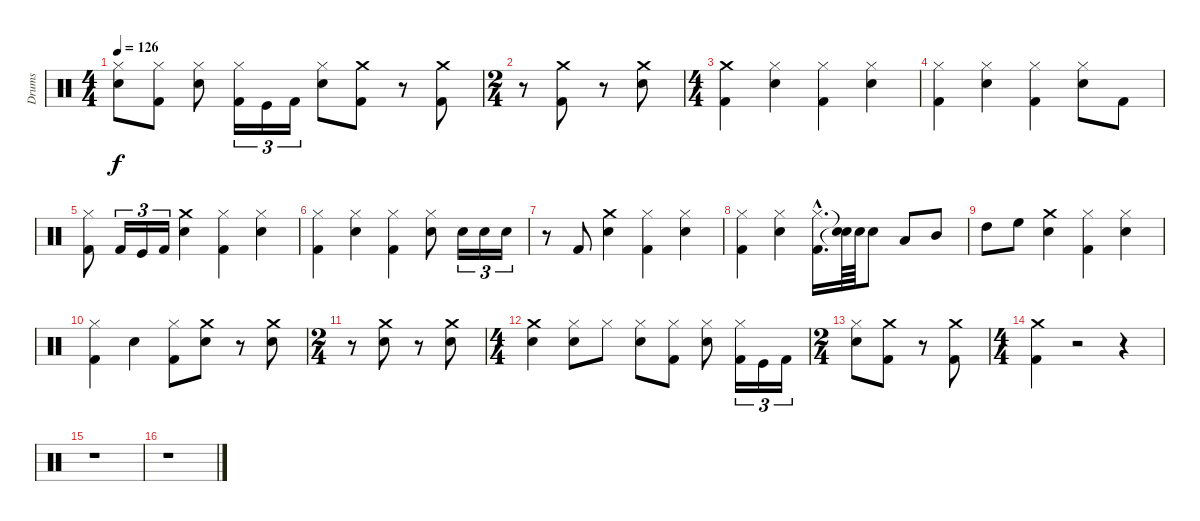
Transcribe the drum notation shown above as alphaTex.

\track ("Drums" "Drums") {instrument percussion}
\staff {score}
\articulation defaults
\ts (4 4)
\tempo 126
\clef neutral
\ks c
("Hi-Hat (closed)" "Snare (hit) 2").8{dy f} ("Kick (hit) 2" "Hi-Hat (closed)").8 ("Snare (hit) 2" "Hi-Hat (closed)").8 ("Hi-Hat (closed)" "Kick (hit) 2").16{tu (3 2)} "Kick (hit)".16{tu (3 2)} "Kick (hit) 2".16{tu (3 2)} ("Snare (hit) 2" "Hi-Hat (closed)").8 ("Crash medium (hit)" "Kick (hit) 2").8 r.8 ("Crash medium (hit)" "Kick (hit) 2").8 |
\ts (2 4)
r.8 ("Crash medium (hit)" "Kick (hit) 2").8 r.8 ("Snare (hit) 2" "Crash medium (hit)").8 |
\ts (4 4)
("Kick (hit) 2" "Crash medium (hit)").4 ("Hi-Hat (closed)" "Snare (hit) 2").4 ("Hi-Hat (closed)" "Kick (hit) 2").4 ("Snare (hit) 2" "Hi-Hat (closed)").4 |
("Hi-Hat (closed)" "Kick (hit) 2").4 ("Snare (hit) 2" "Hi-Hat (closed)").4 ("Hi-Hat (closed)" "Kick (hit) 2").4 ("Snare (hit) 2" "Hi-Hat (closed)").8 "Kick (hit) 2".8 |
("Hi-Hat (closed)" "Kick (hit) 2").8 "Kick (hit) 2".16{tu (3 2)} "Kick (hit)".16{tu (3 2)} "Kick (hit) 2".16{tu (3 2)} ("Crash medium (hit)" "Snare (hit) 2").4 ("Kick (hit) 2" "Hi-Hat (closed)").4 ("Hi-Hat (closed)" "Snare (hit) 2").4 |
("Kick (hit) 2" "Hi-Hat (closed)").4 ("Hi-Hat (closed)" "Snare (hit) 2").4 ("Kick (hit) 2" "Hi-Hat (closed)").4 ("Snare (hit) 2" "Hi-Hat (closed)").8 "Snare (hit) 2".16{tu (3 2)} "Snare (hit) 2".16{tu (3 2)} "Snare (hit) 2".16{tu (3 2)} |
r.8 "Kick (hit) 2".8 ("Snare (hit) 2" "Crash medium (hit)").4 ("Hi-Hat (closed)" "Kick (hit) 2").4 ("Snare (hit) 2" "Hi-Hat (closed)").4 |
("Hi-Hat (closed)" "Kick (hit) 2").4 ("Snare (hit) 2" "Hi-Hat (closed)").4 ("Hi-Hat (closed)"{hac} "Kick (hit) 2"{hac}).16{d} ("Snare (hit)"{t} "Snare (hit)"{t}).64 "Snare (hit) 2".64 "Snare (hit) 2".8 "Low Tom (hit)".8 "Mid Tom (hit)".8 |
"High Tom (hit)".8 "High Floor Tom (hit)".8 ("Snare (hit) 2" "Crash medium (hit)").4 ("Hi-Hat (closed)" "Kick (hit) 2").4 ("Snare (hit) 2" "Hi-Hat (closed)").4 |
("Kick (hit) 2" "Hi-Hat (closed)").4 "Snare (hit) 2".4 ("Hi-Hat (closed)" "Kick (hit) 2").8 ("Crash medium (hit)" "Snare (hit) 2").8 r.8 ("Crash medium (hit)" "Snare (hit) 2").8 |
\ts (2 4)
r.8 ("Snare (hit) 2" "Crash medium (hit)").8 r.8 ("Snare (hit) 2" "Crash medium (hit)").8 |
\ts (4 4)
("Snare (hit) 2" "Crash medium (hit)").4 ("Hi-Hat (closed)" "Snare (hit) 2").8 "Hi-Hat (closed)".8 ("Hi-Hat (closed)" "Snare (hit) 2").8 ("Kick (hit) 2" "Hi-Hat (closed)").8 ("Hi-Hat (closed)" "Snare (hit) 2").8 ("Kick (hit) 2" "Hi-Hat (closed)").16{tu (3 2)} "Kick (hit)".16{tu (3 2)} "Kick (hit) 2".16{tu (3 2)} |
\ts (2 4)
("Hi-Hat (closed)" "Snare (hit) 2").8 ("Kick (hit) 2" "Crash medium (hit)").8 r.8 ("Crash medium (hit)" "Kick (hit) 2").8 |
\ts (4 4)
("Kick (hit) 2" "Crash medium (hit)").4 r.2 r.4 |
r.1 |
r.1
